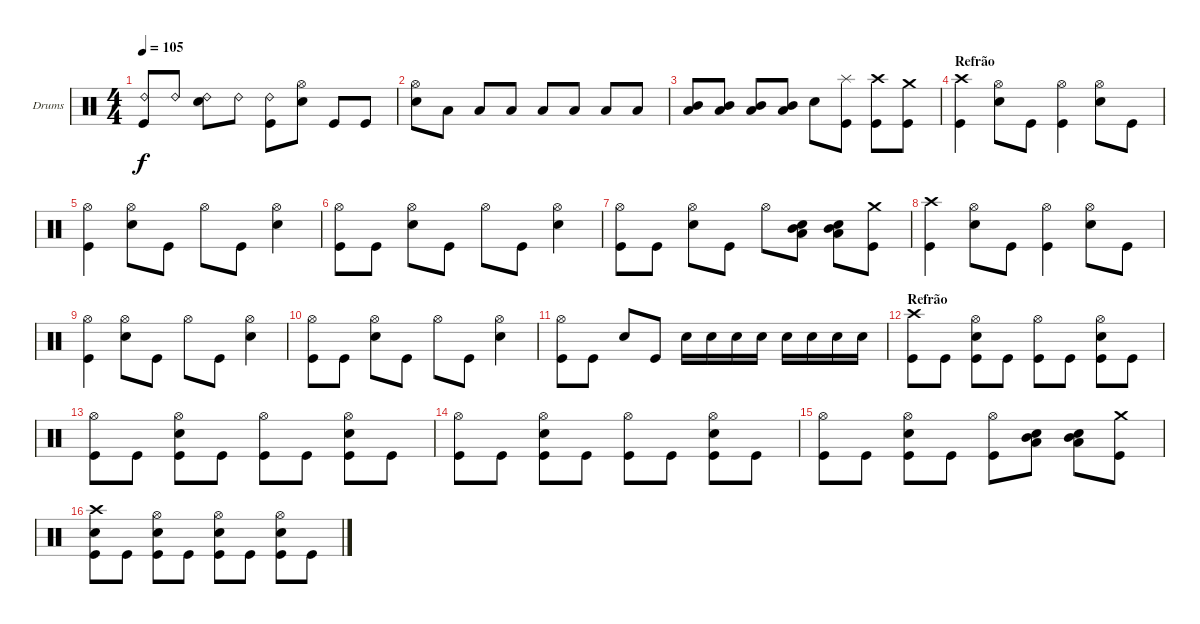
\bracketExtendMode groupsimilarinstruments
\firstSystemTrackNameOrientation horizontal
\otherSystemsTrackNameOrientation horizontal
\track ("Drumkit" "Drums") {instrument percussion}
\staff {score}
\articulation defaults
\ts (4 4)
\tempo 105
\clef neutral
\ks c
("Ride (bell) 2" "Kick (hit)").8{dy f} "Ride (bell) 2".8 ("Ride (bell) 2" "Snare (hit) 2").8 "Ride (bell) 2".8 ("Ride (bell) 2" "Kick (hit)").8 ("Hi-Hat (open)" "Snare (hit) 2").8 "Kick (hit)".8 "Kick (hit)".8 |
("Hi-Hat (open)" "Snare (hit) 2").8 "Low Tom (hit)".8 "Low Tom (hit)".8 "Low Tom (hit)".8 "Low Tom (hit)".8 "Low Tom (hit)".8 "Low Tom (hit)".8 "Low Tom (hit)".8 |
("Mid Tom (hit)" "Low Tom (hit)").8 ("Mid Tom (hit)" "Low Tom (hit)").8 ("Mid Tom (hit)" "Low Tom (hit)").8 ("Mid Tom (hit)" "Low Tom (hit)").8 "Snare (hit) 2".8 ("Splash (hit)" "Kick (hit)").8 ("Crash high (hit)" "Kick (hit)").8 ("Crash medium (hit)" "Kick (hit)").8 |
\section ("" "Refrão")
("Crash high (hit)" "Kick (hit)").4 ("Hi-Hat (open)" "Snare (hit) 2").8 "Kick (hit)".8 ("Hi-Hat (open)" "Kick (hit)").4 ("Hi-Hat (open)" "Snare (hit) 2").8 "Kick (hit)".8 |
("Hi-Hat (open)" "Kick (hit)").4 ("Hi-Hat (open)" "Snare (hit) 2").8 "Kick (hit)".8 "Hi-Hat (open)".8 "Kick (hit)".8 ("Hi-Hat (open)" "Snare (hit) 2").4 |
("Hi-Hat (open)" "Kick (hit)").8 "Kick (hit)".8 ("Hi-Hat (open)" "Snare (hit) 2").8 "Kick (hit)".8 "Hi-Hat (open)".8 "Kick (hit)".8 ("Hi-Hat (open)" "Snare (hit) 2").4 |
("Hi-Hat (open)" "Kick (hit)").8 "Kick (hit)".8 ("Hi-Hat (open)" "Snare (hit) 2").8 "Kick (hit)".8 "Hi-Hat (open)".8 ("Mid Tom (hit)" "Low Tom (hit)" "Snare (hit) 2").8 ("Mid Tom (hit)" "Low Tom (hit)" "Snare (hit) 2").8 ("Crash medium (hit)" "Kick (hit)").8 |
("Crash high (hit)" "Kick (hit)").4 ("Hi-Hat (open)" "Snare (hit) 2").8 "Kick (hit)".8 ("Hi-Hat (open)" "Kick (hit)").4 ("Hi-Hat (open)" "Snare (hit) 2").8 "Kick (hit)".8 |
("Hi-Hat (open)" "Kick (hit)").4 ("Hi-Hat (open)" "Snare (hit) 2").8 "Kick (hit)".8 "Hi-Hat (open)".8 "Kick (hit)".8 ("Hi-Hat (open)" "Snare (hit) 2").4 |
("Hi-Hat (open)" "Kick (hit)").8 "Kick (hit)".8 ("Hi-Hat (open)" "Snare (hit) 2").8 "Kick (hit)".8 "Hi-Hat (open)".8 "Kick (hit)".8 ("Hi-Hat (open)" "Snare (hit) 2").4 |
("Hi-Hat (open)" "Kick (hit)").8 "Kick (hit)".8 "Snare (hit) 2".8 "Kick (hit)".8 "Snare (hit) 2".16 "Snare (hit) 2".16 "Snare (hit) 2".16 "Snare (hit) 2".16 "Snare (hit) 2".16 "Snare (hit) 2".16 "Snare (hit) 2".16 "Snare (hit) 2".16 |
\section ("" "Refrão")
("Crash high (hit)" "Kick (hit)").8 "Kick (hit)".8 ("Hi-Hat (open)" "Snare (hit) 2" "Kick (hit)").8 "Kick (hit)".8 ("Hi-Hat (open)" "Kick (hit)").8 "Kick (hit)".8 ("Hi-Hat (open)" "Snare (hit) 2" "Kick (hit)").8 "Kick (hit)".8 |
("Hi-Hat (open)" "Kick (hit)").8 "Kick (hit)".8 ("Hi-Hat (open)" "Snare (hit) 2" "Kick (hit)").8 "Kick (hit)".8 ("Hi-Hat (open)" "Kick (hit)").8 "Kick (hit)".8 ("Hi-Hat (open)" "Snare (hit) 2" "Kick (hit)").8 "Kick (hit)".8 |
("Hi-Hat (open)" "Kick (hit)").8 "Kick (hit)".8 ("Hi-Hat (open)" "Snare (hit) 2" "Kick (hit)").8 "Kick (hit)".8 ("Hi-Hat (open)" "Kick (hit)").8 "Kick (hit)".8 ("Hi-Hat (open)" "Snare (hit) 2" "Kick (hit)").8 "Kick (hit)".8 |
("Hi-Hat (open)" "Kick (hit)").8 "Kick (hit)".8 ("Hi-Hat (open)" "Snare (hit) 2" "Kick (hit)").8 "Kick (hit)".8 ("Hi-Hat (open)" "Kick (hit)").8 ("Mid Tom (hit)" "Low Tom (hit)" "Snare (hit) 2").8 ("Mid Tom (hit)" "Low Tom (hit)" "Snare (hit) 2").8 ("Crash medium (hit)" "Kick (hit)").8 |
("Crash high (hit)" "Snare (hit) 2" "Kick (hit)").8 "Kick (hit)".8 ("Hi-Hat (open)" "Snare (hit) 2" "Kick (hit)").8 "Kick (hit)".8 ("Hi-Hat (open)" "Snare (hit) 2" "Kick (hit)").8 "Kick (hit)".8 ("Hi-Hat (open)" "Snare (hit) 2" "Kick (hit)").8 "Kick (hit)".8
